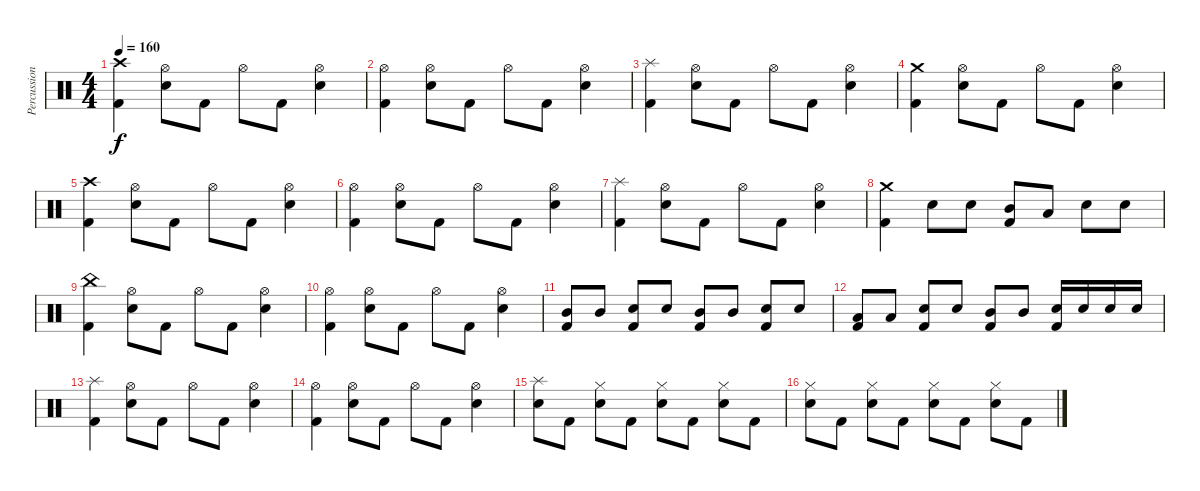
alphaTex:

\track ("Percussion" "Percussion") {instrument percussion}
\staff {score}
\articulation defaults
\ts (4 4)
\tempo 160
\clef neutral
\ks c
("Crash high (hit)" "Kick (hit) 2").4{dy f} ("Hi-Hat (open)" "Snare (hit) 2").8 "Kick (hit) 2".8 "Hi-Hat (open)".8 "Kick (hit) 2".8 ("Hi-Hat (open)" "Snare (hit) 2").4 |
("Hi-Hat (open)" "Kick (hit) 2").4 ("Hi-Hat (open)" "Snare (hit) 2").8 "Kick (hit) 2".8 "Hi-Hat (open)".8 "Kick (hit) 2".8 ("Hi-Hat (open)" "Snare (hit) 2").4 |
("Splash (hit)" "Kick (hit) 2").4 ("Hi-Hat (open)" "Snare (hit) 2").8 "Kick (hit) 2".8 "Hi-Hat (open)".8 "Kick (hit) 2".8 ("Hi-Hat (open)" "Snare (hit) 2").4 |
("Crash medium (hit)" "Kick (hit) 2").4 ("Hi-Hat (open)" "Snare (hit) 2").8 "Kick (hit) 2".8 "Hi-Hat (open)".8 "Kick (hit) 2".8 ("Hi-Hat (open)" "Snare (hit) 2").4 |
("Crash high (hit)" "Kick (hit) 2").4 ("Hi-Hat (open)" "Snare (hit) 2").8 "Kick (hit) 2".8 "Hi-Hat (open)".8 "Kick (hit) 2".8 ("Hi-Hat (open)" "Snare (hit) 2").4 |
("Hi-Hat (open)" "Kick (hit) 2").4 ("Hi-Hat (open)" "Snare (hit) 2").8 "Kick (hit) 2".8 "Hi-Hat (open)".8 "Kick (hit) 2".8 ("Hi-Hat (open)" "Snare (hit) 2").4 |
("Splash (hit)" "Kick (hit) 2").4 ("Hi-Hat (open)" "Snare (hit) 2").8 "Kick (hit) 2".8 "Hi-Hat (open)".8 "Kick (hit) 2".8 ("Hi-Hat (open)" "Snare (hit) 2").4 |
("Crash medium (hit)" "Kick (hit) 2").4 "Snare (hit) 2".8 "Snare (hit) 2".8 ("Mid Tom (hit)" "Kick (hit) 2").8 "Low Tom (hit)".8 "Snare (hit) 2".8 "Snare (hit) 2".8 |
("China (hit)" "Kick (hit) 2").4 ("Hi-Hat (open)" "Snare (hit) 2").8 "Kick (hit) 2".8 "Hi-Hat (open)".8 "Kick (hit) 2".8 ("Hi-Hat (open)" "Snare (hit) 2").4 |
("Hi-Hat (open)" "Kick (hit) 2").4 ("Hi-Hat (open)" "Snare (hit) 2").8 "Kick (hit) 2".8 "Hi-Hat (open)".8 "Kick (hit) 2".8 ("Hi-Hat (open)" "Snare (hit) 2").4 |
("Mid Tom (hit)" "Kick (hit) 2").8 "Mid Tom (hit)".8 ("Snare (hit) 2" "Kick (hit) 2").8 "Snare (hit) 2".8 ("Mid Tom (hit)" "Kick (hit) 2").8 "Mid Tom (hit)".8 ("Snare (hit) 2" "Kick (hit) 2").8 "Snare (hit) 2".8 |
("Low Tom (hit)" "Kick (hit) 2").8 "Low Tom (hit)".8 ("Snare (hit) 2" "Kick (hit) 2").8 "Snare (hit) 2".8 ("Mid Tom (hit)" "Kick (hit) 2").8 "Mid Tom (hit)".8 ("Snare (hit) 2" "Kick (hit) 2").16 "Snare (hit) 2".16 "Snare (hit) 2".16 "Snare (hit) 2".16 |
("Splash (hit)" "Kick (hit) 2").4 ("Hi-Hat (open)" "Snare (hit) 2").8 "Kick (hit) 2".8 "Hi-Hat (open)".8 "Kick (hit) 2".8 ("Hi-Hat (open)" "Snare (hit) 2").4 |
("Hi-Hat (open)" "Kick (hit) 2").4 ("Hi-Hat (open)" "Snare (hit) 2").8 "Kick (hit) 2".8 "Hi-Hat (open)".8 "Kick (hit) 2".8 ("Hi-Hat (open)" "Snare (hit) 2").4 |
("Splash (hit)" "Snare (hit) 2").8 "Kick (hit) 2".8 ("Hi-Hat (closed)" "Snare (hit) 2").8 "Kick (hit) 2".8 ("Hi-Hat (closed)" "Snare (hit) 2").8 "Kick (hit) 2".8 ("Hi-Hat (closed)" "Snare (hit) 2").8 "Kick (hit) 2".8 |
("Hi-Hat (closed)" "Snare (hit) 2").8 "Kick (hit) 2".8 ("Hi-Hat (closed)" "Snare (hit) 2").8 "Kick (hit) 2".8 ("Hi-Hat (closed)" "Snare (hit) 2").8 "Kick (hit) 2".8 ("Hi-Hat (closed)" "Snare (hit) 2").8 "Kick (hit) 2".8
